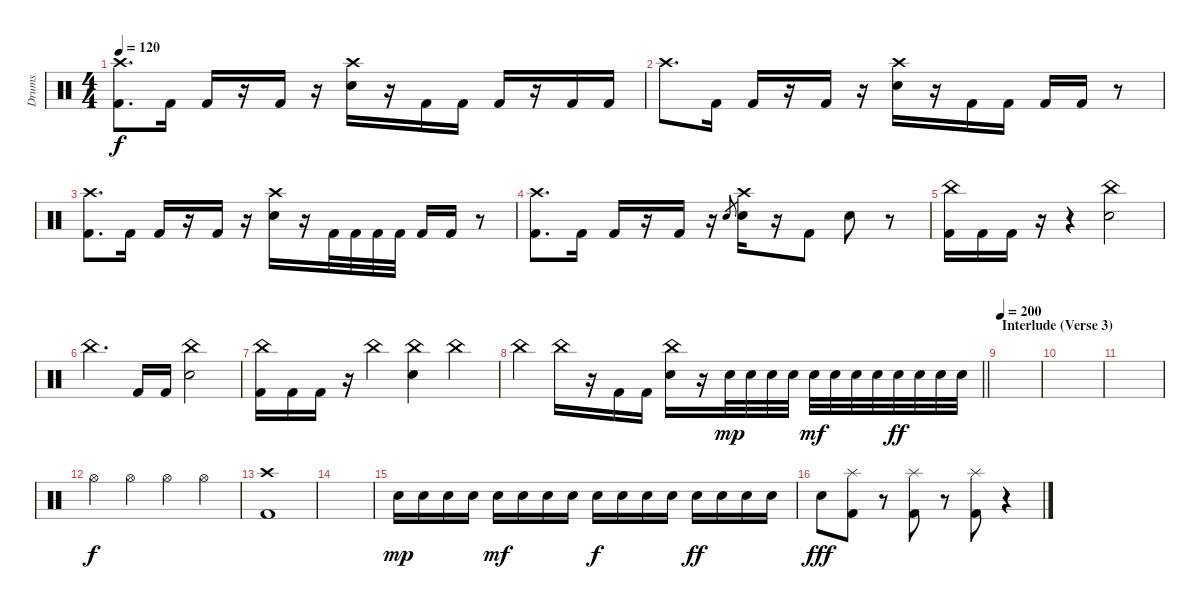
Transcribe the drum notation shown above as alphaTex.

\track ("Drums" "Drums") {instrument percussion}
\staff {score}
\articulation defaults
\ts (4 4)
\tempo 120
\clef neutral
\ks c
("Crash high (hit)" "Kick (hit) 2").8{d dy f} "Kick (hit) 2".16 "Kick (hit) 2".16 r.16 "Kick (hit) 2".16 r.16 ("Crash high (hit)" "Snare (hit) 2").16 r.16 "Kick (hit) 2".16 "Kick (hit) 2".16 "Kick (hit) 2".16 r.16 "Kick (hit) 2".16 "Kick (hit) 2".16 |
"Crash high (hit)".8{d} "Kick (hit) 2".16 "Kick (hit) 2".16 r.16 "Kick (hit) 2".16 r.16 ("Crash high (hit)" "Snare (hit) 2").16 r.16 "Kick (hit) 2".16 "Kick (hit) 2".16 "Kick (hit) 2".16 "Kick (hit) 2".16 r.8 |
("Crash high (hit)" "Kick (hit) 2").8{d} "Kick (hit) 2".16 "Kick (hit) 2".16 r.16 "Kick (hit) 2".16 r.16 ("Crash high (hit)" "Snare (hit) 2").16 r.16 "Kick (hit) 2".32 "Kick (hit) 2".32 "Kick (hit) 2".32 "Kick (hit) 2".32 "Kick (hit) 2".16 "Kick (hit) 2".16 r.8 |
("Crash high (hit)" "Kick (hit) 2").8{d} "Kick (hit) 2".16 "Kick (hit) 2".16 r.16 "Kick (hit) 2".16 r.16 "Snare (hit) 2".8{gr} ("Crash high (hit)" "Snare (hit) 2").16 r.16 "Kick (hit) 2".8 "Snare (hit) 2".8 r.8 |
("China (hit)" "Kick (hit) 2").16 "Kick (hit) 2".16 "Kick (hit) 2".16 r.16 r.4 ("China (hit)" "Snare (hit) 2").2 |
"China (hit)".4{d} "Kick (hit) 2".16 "Kick (hit) 2".16 ("China (hit)" "Snare (hit) 2").2 |
("China (hit)" "Kick (hit) 2").16 "Kick (hit) 2".16 "Kick (hit) 2".16 r.16 "China (hit)".4 ("China (hit)" "Snare (hit) 2").4 "China (hit)".4 |
\barLineRight lightlight "China (hit)".4 "China (hit)".16
r.16 "Kick (hit) 2".16 "Kick (hit) 2".16 ("China (hit)" "Snare (hit) 2").16 r.16 "Snare (hit) 2".32{dy mp} "Snare (hit) 2".32 "Snare (hit) 2".32 "Snare (hit) 2".32 "Snare (hit) 2".32{dy mf} "Snare (hit) 2".32 "Snare (hit) 2".32 "Snare (hit) 2".32 "Snare (hit) 2".32{dy ff} "Snare (hit) 2".32 "Snare (hit) 2".32 "Snare (hit) 2".32 |
\section ("" "Interlude (Verse 3)")
\tempo 200
|
|
|
"Hi-Hat (open)".4{dy f} "Hi-Hat (open)".4 "Hi-Hat (open)".4 "Hi-Hat (open)".4 |
("Crash high (hit)" "Kick (hit) 2").1 |
|
"Snare (hit) 2".16{dy mp} "Snare (hit) 2".16 "Snare (hit) 2".16 "Snare (hit) 2".16 "Snare (hit) 2".16{dy mf} "Snare (hit) 2".16 "Snare (hit) 2".16 "Snare (hit) 2".16 "Snare (hit) 2".16{dy f} "Snare (hit) 2".16 "Snare (hit) 2".16 "Snare (hit) 2".16 "Snare (hit) 2".16{dy ff} "Snare (hit) 2".16 "Snare (hit) 2".16 "Snare (hit) 2".16 |
"Snare (hit) 2".8{dy fff} ("Splash (hit)" "Kick (hit) 2").8 r.8 ("Splash (hit)" "Kick (hit) 2").8 r.8 ("Splash (hit)" "Kick (hit) 2").8 r.4
